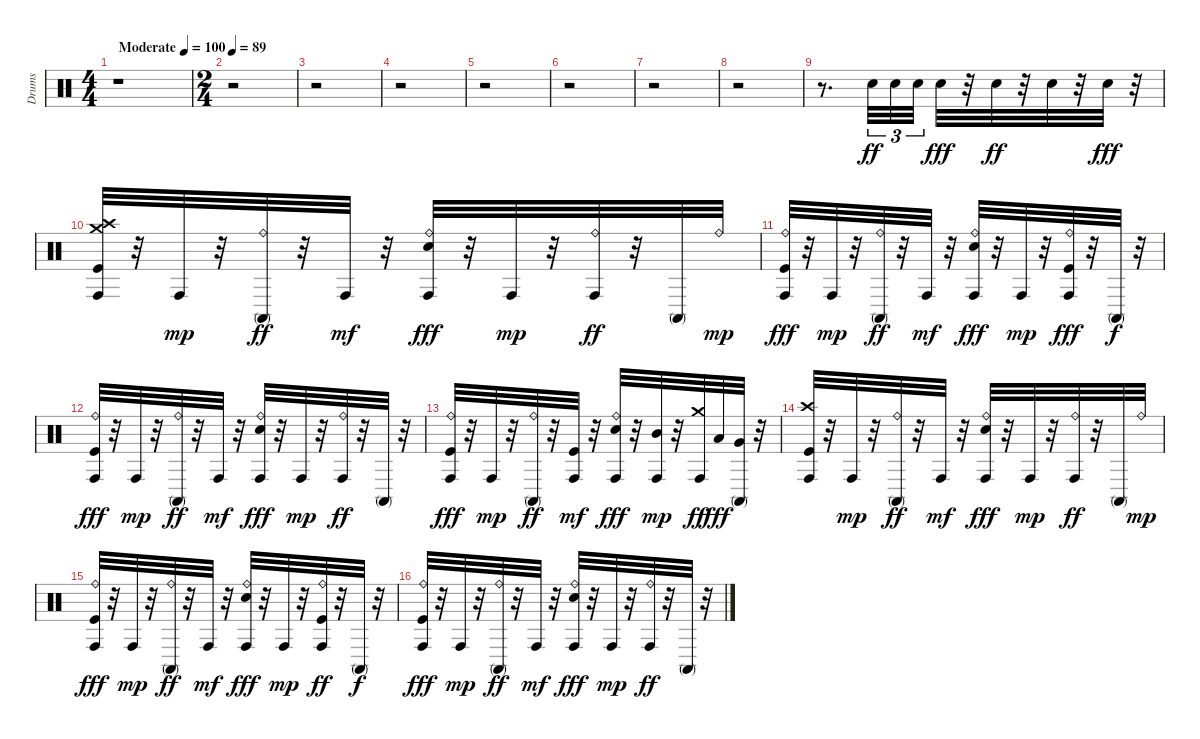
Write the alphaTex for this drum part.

\track ("Drums" "Drums") {instrument percussion}
\staff {score}
\articulation defaults
\ts (4 4)
\tempo (100 "Moderate")
\clef neutral
\ks c
r.1{dy ff} |
\ts (2 4)
\tempo 89
r.2 |
r.2 |
r.2 |
r.2 |
r.2 |
r.2 |
r.2 |
r.8{d} "Snare (hit) 2".32{tu (3 2)} "Snare (hit) 2".32{tu (3 2)} "Snare (hit) 2".32{tu (3 2)} "Snare (hit) 2".32{dy fff} r.32 "Snare (hit) 2".32{dy ff} r.32 "Snare (hit) 2".32 r.32 "Snare (hit) 2".32{dy fff} r.32 |
("Conga high (hit)" "Crash medium (hit)" "Crash high (hit)" "Kick (hit)").32 r.32 "Conga high (hit)".32{dy mp} r.32 ("Ride (bell)" "Conga high (mute)").32{dy ff} r.32 "Conga high (hit)".32{dy mf} r.32 ("Snare (hit) 2" "Conga high (hit)" "Ride (bell)").32{dy fff} r.32 "Conga high (hit)".32{dy mp} r.32 ("Ride (bell)" "Conga high (hit)").32{dy ff} r.32 "Conga high (mute)".32 "Ride (bell)".32{dy mp} |
("Ride (bell)" "Kick (hit)" "Conga high (hit)").32{dy fff} r.32 "Conga high (hit)".32{dy mp} r.32 ("Ride (bell)" "Conga high (mute)").32{dy ff} r.32 "Conga high (hit)".32{dy mf} r.32 ("Conga high (hit)" "Ride (bell)" "Snare (hit) 2").32{dy fff} r.32 "Conga high (hit)".32{dy mp} r.32 ("Conga high (hit)" "Kick (hit)" "Ride (bell)").32{dy fff} r.32 "Conga high (mute)".32{dy f} r.32 |
("Ride (bell)" "Kick (hit)" "Conga high (hit)").32{dy fff} r.32 "Conga high (hit)".32{dy mp} r.32 ("Ride (bell)" "Conga high (mute)").32{dy ff} r.32 "Conga high (hit)".32{dy mf} r.32 ("Ride (bell)" "Conga high (hit)" "Snare (hit) 2").32{dy fff} r.32 "Conga high (hit)".32{dy mp} r.32 ("Ride (bell)" "Conga high (hit)").32{dy ff} r.32 "Conga high (mute)".32 r.32 |
("Kick (hit)" "Conga high (hit)" "Ride (bell)").32{dy fff} r.32 "Conga high (hit)".32{dy mp} r.32 ("Conga high (mute)" "Ride (bell)").32{dy ff} r.32 ("Kick (hit)" "Conga high (hit)").32{dy mf} r.32 ("Conga high (hit)" "Snare (hit) 2" "Ride (bell)").32{dy fff} r.32 ("Mid Tom (hit)" "Conga high (hit)").32{dy mp} r.32 ("Crash medium (hit)" "Conga high (hit)").32{dy ff} "Low Tom (hit)".32{dy fff} ("Very Low Tom (hit)" "Conga high (mute)").32 r.32 |
("Crash high (hit)" "Conga high (hit)" "Kick (hit)").32 r.32 "Conga high (hit)".32{dy mp} r.32 ("Ride (bell)" "Conga high (mute)").32{dy ff} r.32 "Conga high (hit)".32{dy mf} r.32 ("Ride (bell)" "Conga high (hit)" "Snare (hit) 2").32{dy fff} r.32 "Conga high (hit)".32{dy mp} r.32 ("Conga high (hit)" "Ride (bell)").32{dy ff} r.32 "Conga high (mute)".32 "Ride (bell)".32{dy mp} |
("Ride (bell)" "Kick (hit)" "Conga high (hit)").32{dy fff} r.32 "Conga high (hit)".32{dy mp} r.32 ("Ride (bell)" "Conga high (mute)").32{dy ff} r.32 "Conga high (hit)".32{dy mf} r.32 ("Conga high (hit)" "Snare (hit) 2" "Ride (bell)").32{dy fff} r.32 "Conga high (hit)".32{dy mp} r.32 ("Kick (hit)" "Ride (bell)" "Conga high (hit)").32{dy ff} r.32 "Conga high (mute)".32{dy f} r.32 |
("Kick (hit)" "Conga high (hit)" "Ride (bell)").32{dy fff} r.32 "Conga high (hit)".32{dy mp} r.32 ("Ride (bell)" "Conga high (mute)").32{dy ff} r.32 "Conga high (hit)".32{dy mf} r.32 ("Conga high (hit)" "Ride (bell)" "Snare (hit) 2").32{dy fff} r.32 "Conga high (hit)".32{dy mp} r.32 ("Ride (bell)" "Conga high (hit)").32{dy ff} r.32 "Conga high (mute)".32 r.32
